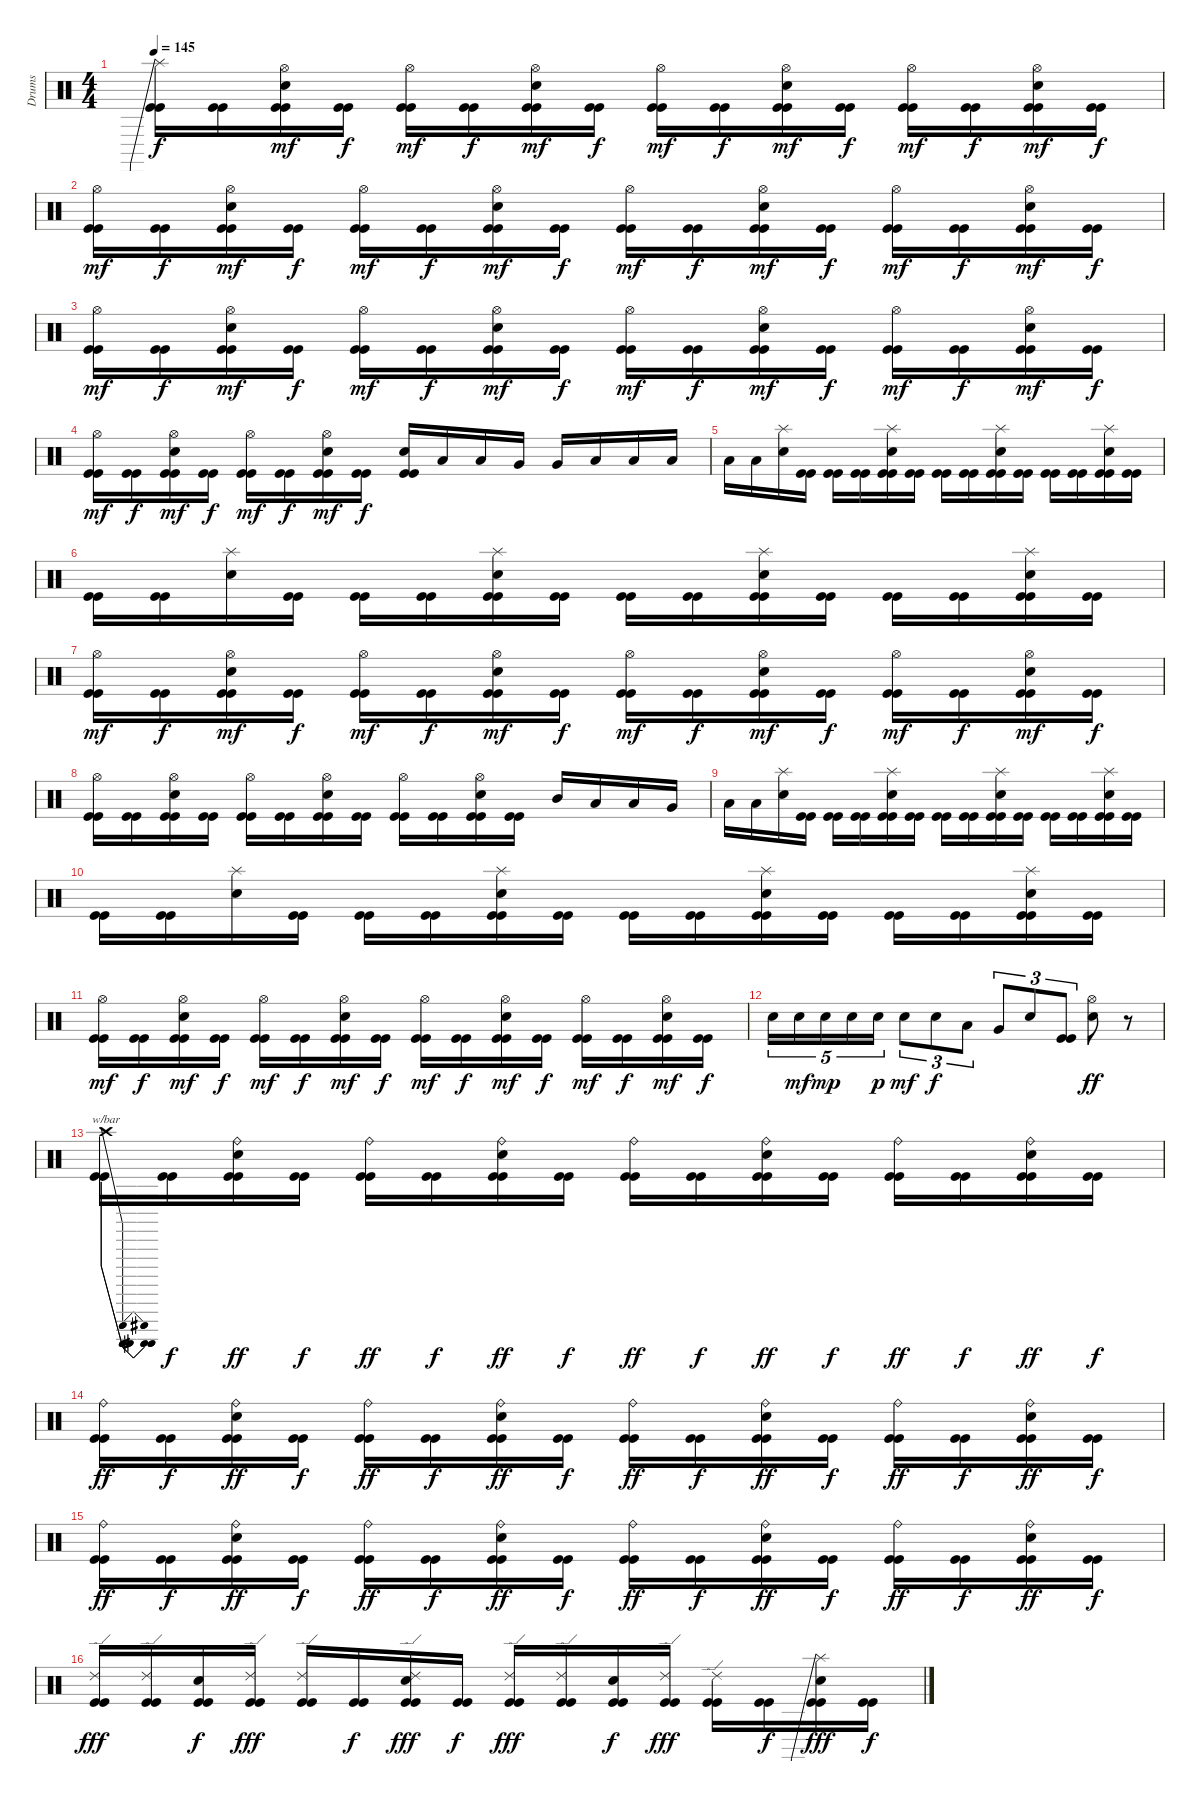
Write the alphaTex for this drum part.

\track ("Drums" "Drums") {instrument percussion}
\staff {score}
\articulation defaults
\ts (4 4)
\tempo 145
\clef neutral
\ks c
("Splash (hit)"{be (prebend 0 4 60 4)} "Kick (hit)" "Kick (hit)").16{dy f} ("Kick (hit)" "Kick (hit)").16 ("Hi-Hat (open)" "Electric Snare (hit)" "Kick (hit)" "Kick (hit)").16{dy mf} ("Kick (hit)" "Kick (hit)").16{dy f} ("Hi-Hat (open)" "Kick (hit)" "Kick (hit)").16{dy mf} ("Kick (hit)" "Kick (hit)").16{dy f} ("Hi-Hat (open)" "Electric Snare (hit)" "Kick (hit)" "Kick (hit)").16{dy mf} ("Kick (hit)" "Kick (hit)").16{dy f} ("Hi-Hat (open)" "Kick (hit)" "Kick (hit)").16{dy mf} ("Kick (hit)" "Kick (hit)").16{dy f} ("Hi-Hat (open)" "Electric Snare (hit)" "Kick (hit)" "Kick (hit)").16{dy mf} ("Kick (hit)" "Kick (hit)").16{dy f} ("Hi-Hat (open)" "Kick (hit)" "Kick (hit)").16{dy mf} ("Kick (hit)" "Kick (hit)").16{dy f} ("Hi-Hat (open)" "Electric Snare (hit)" "Kick (hit)" "Kick (hit)").16{dy mf} ("Kick (hit)" "Kick (hit)").16{dy f} |
("Hi-Hat (open)" "Kick (hit)" "Kick (hit)").16{dy mf} ("Kick (hit)" "Kick (hit)").16{dy f} ("Hi-Hat (open)" "Electric Snare (hit)" "Kick (hit)" "Kick (hit)").16{dy mf} ("Kick (hit)" "Kick (hit)").16{dy f} ("Hi-Hat (open)" "Kick (hit)" "Kick (hit)").16{dy mf} ("Kick (hit)" "Kick (hit)").16{dy f} ("Hi-Hat (open)" "Electric Snare (hit)" "Kick (hit)" "Kick (hit)").16{dy mf} ("Kick (hit)" "Kick (hit)").16{dy f} ("Hi-Hat (open)" "Kick (hit)" "Kick (hit)").16{dy mf} ("Kick (hit)" "Kick (hit)").16{dy f} ("Hi-Hat (open)" "Electric Snare (hit)" "Kick (hit)" "Kick (hit)").16{dy mf} ("Kick (hit)" "Kick (hit)").16{dy f} ("Hi-Hat (open)" "Kick (hit)" "Kick (hit)").16{dy mf} ("Kick (hit)" "Kick (hit)").16{dy f} ("Hi-Hat (open)" "Electric Snare (hit)" "Kick (hit)" "Kick (hit)").16{dy mf} ("Kick (hit)" "Kick (hit)").16{dy f} |
("Hi-Hat (open)" "Kick (hit)" "Kick (hit)").16{dy mf} ("Kick (hit)" "Kick (hit)").16{dy f} ("Hi-Hat (open)" "Electric Snare (hit)" "Kick (hit)" "Kick (hit)").16{dy mf} ("Kick (hit)" "Kick (hit)").16{dy f} ("Hi-Hat (open)" "Kick (hit)" "Kick (hit)").16{dy mf} ("Kick (hit)" "Kick (hit)").16{dy f} ("Hi-Hat (open)" "Electric Snare (hit)" "Kick (hit)" "Kick (hit)").16{dy mf} ("Kick (hit)" "Kick (hit)").16{dy f} ("Hi-Hat (open)" "Kick (hit)" "Kick (hit)").16{dy mf} ("Kick (hit)" "Kick (hit)").16{dy f} ("Hi-Hat (open)" "Electric Snare (hit)" "Kick (hit)" "Kick (hit)").16{dy mf} ("Kick (hit)" "Kick (hit)").16{dy f} ("Hi-Hat (open)" "Kick (hit)" "Kick (hit)").16{dy mf} ("Kick (hit)" "Kick (hit)").16{dy f} ("Hi-Hat (open)" "Electric Snare (hit)" "Kick (hit)" "Kick (hit)").16{dy mf} ("Kick (hit)" "Kick (hit)").16{dy f} |
("Hi-Hat (open)" "Kick (hit)" "Kick (hit)").16{dy mf} ("Kick (hit)" "Kick (hit)").16{dy f} ("Hi-Hat (open)" "Electric Snare (hit)" "Kick (hit)" "Kick (hit)").16{dy mf} ("Kick (hit)" "Kick (hit)").16{dy f} ("Hi-Hat (open)" "Kick (hit)" "Kick (hit)").16{dy mf} ("Kick (hit)" "Kick (hit)").16{dy f} ("Hi-Hat (open)" "Electric Snare (hit)" "Kick (hit)" "Kick (hit)").16{dy mf} ("Kick (hit)" "Kick (hit)").16{dy f} ("Electric Snare (hit)" "Kick (hit)" "Kick (hit)").16 "Low Tom (hit)".16 "Low Tom (hit)".16 "Very Low Tom (hit)".16 "Very Low Tom (hit)".16 "Low Floor Tom (hit)".16 "Low Floor Tom (hit)".16 "Low Floor Tom (hit)".16 |
"Low Floor Tom (hit)".16 "Low Floor Tom (hit)".16 ("Splash (hit)" "Electric Snare (hit)").16 ("Kick (hit)" "Kick (hit)").16 ("Kick (hit)" "Kick (hit)").16 ("Kick (hit)" "Kick (hit)").16 ("Splash (hit)" "Electric Snare (hit)" "Kick (hit)" "Kick (hit)").16 ("Kick (hit)" "Kick (hit)").16 ("Kick (hit)" "Kick (hit)").16 ("Kick (hit)" "Kick (hit)").16 ("Splash (hit)" "Electric Snare (hit)" "Kick (hit)" "Kick (hit)").16 ("Kick (hit)" "Kick (hit)").16 ("Kick (hit)" "Kick (hit)").16 ("Kick (hit)" "Kick (hit)").16 ("Splash (hit)" "Electric Snare (hit)" "Kick (hit)" "Kick (hit)").16 ("Kick (hit)" "Kick (hit)").16 |
("Kick (hit)" "Kick (hit)").16 ("Kick (hit)" "Kick (hit)").16 ("Splash (hit)" "Electric Snare (hit)").16 ("Kick (hit)" "Kick (hit)").16 ("Kick (hit)" "Kick (hit)").16 ("Kick (hit)" "Kick (hit)").16 ("Splash (hit)" "Electric Snare (hit)" "Kick (hit)" "Kick (hit)").16 ("Kick (hit)" "Kick (hit)").16 ("Kick (hit)" "Kick (hit)").16 ("Kick (hit)" "Kick (hit)").16 ("Splash (hit)" "Electric Snare (hit)" "Kick (hit)" "Kick (hit)").16 ("Kick (hit)" "Kick (hit)").16 ("Kick (hit)" "Kick (hit)").16 ("Kick (hit)" "Kick (hit)").16 ("Splash (hit)" "Electric Snare (hit)" "Kick (hit)" "Kick (hit)").16 ("Kick (hit)" "Kick (hit)").16 |
("Hi-Hat (open)" "Kick (hit)" "Kick (hit)").16{dy mf} ("Kick (hit)" "Kick (hit)").16{dy f} ("Hi-Hat (open)" "Electric Snare (hit)" "Kick (hit)" "Kick (hit)").16{dy mf} ("Kick (hit)" "Kick (hit)").16{dy f} ("Hi-Hat (open)" "Kick (hit)" "Kick (hit)").16{dy mf} ("Kick (hit)" "Kick (hit)").16{dy f} ("Hi-Hat (open)" "Electric Snare (hit)" "Kick (hit)" "Kick (hit)").16{dy mf} ("Kick (hit)" "Kick (hit)").16{dy f} ("Hi-Hat (open)" "Kick (hit)" "Kick (hit)").16{dy mf} ("Kick (hit)" "Kick (hit)").16{dy f} ("Hi-Hat (open)" "Electric Snare (hit)" "Kick (hit)" "Kick (hit)").16{dy mf} ("Kick (hit)" "Kick (hit)").16{dy f} ("Hi-Hat (open)" "Kick (hit)" "Kick (hit)").16{dy mf} ("Kick (hit)" "Kick (hit)").16{dy f} ("Hi-Hat (open)" "Electric Snare (hit)" "Kick (hit)" "Kick (hit)").16{dy mf} ("Kick (hit)" "Kick (hit)").16{dy f} |
("Hi-Hat (open)" "Kick (hit)" "Kick (hit)").16 ("Kick (hit)" "Kick (hit)").16 ("Hi-Hat (open)" "Electric Snare (hit)" "Kick (hit)" "Kick (hit)").16 ("Kick (hit)" "Kick (hit)").16 ("Hi-Hat (open)" "Kick (hit)" "Kick (hit)").16 ("Kick (hit)" "Kick (hit)").16 ("Hi-Hat (open)" "Electric Snare (hit)" "Kick (hit)" "Kick (hit)").16 ("Kick (hit)" "Kick (hit)").16 ("Hi-Hat (open)" "Kick (hit)" "Kick (hit)").16 ("Kick (hit)" "Kick (hit)").16 ("Hi-Hat (open)" "Electric Snare (hit)" "Kick (hit)" "Kick (hit)").16 ("Kick (hit)" "Kick (hit)").16 "Mid Tom (hit)".16 "Low Tom (hit)".16 "Low Tom (hit)".16 "Very Low Tom (hit)".16 |
"Low Floor Tom (hit)".16 "Low Floor Tom (hit)".16 ("Splash (hit)" "Electric Snare (hit)").16 ("Kick (hit)" "Kick (hit)").16 ("Kick (hit)" "Kick (hit)").16 ("Kick (hit)" "Kick (hit)").16 ("Splash (hit)" "Electric Snare (hit)" "Kick (hit)" "Kick (hit)").16 ("Kick (hit)" "Kick (hit)").16 ("Kick (hit)" "Kick (hit)").16 ("Kick (hit)" "Kick (hit)").16 ("Splash (hit)" "Electric Snare (hit)" "Kick (hit)" "Kick (hit)").16 ("Kick (hit)" "Kick (hit)").16 ("Kick (hit)" "Kick (hit)").16 ("Kick (hit)" "Kick (hit)").16 ("Splash (hit)" "Electric Snare (hit)" "Kick (hit)" "Kick (hit)").16 ("Kick (hit)" "Kick (hit)").16 |
("Kick (hit)" "Kick (hit)").16 ("Kick (hit)" "Kick (hit)").16 ("Splash (hit)" "Electric Snare (hit)").16 ("Kick (hit)" "Kick (hit)").16 ("Kick (hit)" "Kick (hit)").16 ("Kick (hit)" "Kick (hit)").16 ("Splash (hit)" "Electric Snare (hit)" "Kick (hit)" "Kick (hit)").16 ("Kick (hit)" "Kick (hit)").16 ("Kick (hit)" "Kick (hit)").16 ("Kick (hit)" "Kick (hit)").16 ("Splash (hit)" "Electric Snare (hit)" "Kick (hit)" "Kick (hit)").16 ("Kick (hit)" "Kick (hit)").16 ("Kick (hit)" "Kick (hit)").16 ("Kick (hit)" "Kick (hit)").16 ("Splash (hit)" "Electric Snare (hit)" "Kick (hit)" "Kick (hit)").16 ("Kick (hit)" "Kick (hit)").16 |
("Hi-Hat (open)" "Kick (hit)" "Kick (hit)").16{dy mf} ("Kick (hit)" "Kick (hit)").16{dy f} ("Hi-Hat (open)" "Electric Snare (hit)" "Kick (hit)" "Kick (hit)").16{dy mf} ("Kick (hit)" "Kick (hit)").16{dy f} ("Hi-Hat (open)" "Kick (hit)" "Kick (hit)").16{dy mf} ("Kick (hit)" "Kick (hit)").16{dy f} ("Hi-Hat (open)" "Electric Snare (hit)" "Kick (hit)" "Kick (hit)").16{dy mf} ("Kick (hit)" "Kick (hit)").16{dy f} ("Hi-Hat (open)" "Kick (hit)" "Kick (hit)").16{dy mf} ("Kick (hit)" "Kick (hit)").16{dy f} ("Hi-Hat (open)" "Electric Snare (hit)" "Kick (hit)" "Kick (hit)").16{dy mf} ("Kick (hit)" "Kick (hit)").16{dy f} ("Hi-Hat (open)" "Kick (hit)" "Kick (hit)").16{dy mf} ("Kick (hit)" "Kick (hit)").16{dy f} ("Hi-Hat (open)" "Electric Snare (hit)" "Kick (hit)" "Kick (hit)").16{dy mf} ("Kick (hit)" "Kick (hit)").16{dy f} |
"Electric Snare (hit)".16{tu (5 4)} "Electric Snare (hit)".16{tu (5 4) dy mf} "Electric Snare (hit)".16{tu (5 4) dy mp} "Electric Snare (hit)".16{tu (5 4)} "Electric Snare (hit)".16{tu (5 4) dy p} "Electric Snare (hit)".8{tu (3 2) dy mf} "Electric Snare (hit)".8{tu (3 2) dy f} "Low Tom (hit)".8{tu (3 2)} "Very Low Tom (hit)".8{tu (3 2)} "Electric Snare (hit)".8{tu (3 2)} ("Kick (hit)" "Kick (hit)").8{tu (3 2)} ("Hi-Hat (open)" "Electric Snare (hit)").8{dy ff} r.8 |
("Crash high (hit)" "Kick (hit)" "Kick (hit)").16{tbe (dip default 0 0 30 -2 60 0)} ("Kick (hit)" "Kick (hit)").16{dy f} ("Ride (bell)" "Electric Snare (hit)" "Kick (hit)" "Kick (hit)").16{dy ff} ("Kick (hit)" "Kick (hit)").16{dy f} ("Ride (bell)" "Kick (hit)" "Kick (hit)").16{dy ff} ("Kick (hit)" "Kick (hit)").16{dy f} ("Ride (bell)" "Electric Snare (hit)" "Kick (hit)" "Kick (hit)").16{dy ff} ("Kick (hit)" "Kick (hit)").16{dy f} ("Ride (bell)" "Kick (hit)" "Kick (hit)").16{dy ff} ("Kick (hit)" "Kick (hit)").16{dy f} ("Ride (bell)" "Electric Snare (hit)" "Kick (hit)" "Kick (hit)").16{dy ff} ("Kick (hit)" "Kick (hit)").16{dy f} ("Ride (bell)" "Kick (hit)" "Kick (hit)").16{dy ff} ("Kick (hit)" "Kick (hit)").16{dy f} ("Ride (bell)" "Electric Snare (hit)" "Kick (hit)" "Kick (hit)").16{dy ff} ("Kick (hit)" "Kick (hit)").16{dy f} |
("Ride (bell)" "Kick (hit)" "Kick (hit)").16{dy ff} ("Kick (hit)" "Kick (hit)").16{dy f} ("Ride (bell)" "Electric Snare (hit)" "Kick (hit)" "Kick (hit)").16{dy ff} ("Kick (hit)" "Kick (hit)").16{dy f} ("Ride (bell)" "Kick (hit)" "Kick (hit)").16{dy ff} ("Kick (hit)" "Kick (hit)").16{dy f} ("Ride (bell)" "Electric Snare (hit)" "Kick (hit)" "Kick (hit)").16{dy ff} ("Kick (hit)" "Kick (hit)").16{dy f} ("Ride (bell)" "Kick (hit)" "Kick (hit)").16{dy ff} ("Kick (hit)" "Kick (hit)").16{dy f} ("Ride (bell)" "Electric Snare (hit)" "Kick (hit)" "Kick (hit)").16{dy ff} ("Kick (hit)" "Kick (hit)").16{dy f} ("Ride (bell)" "Kick (hit)" "Kick (hit)").16{dy ff} ("Kick (hit)" "Kick (hit)").16{dy f} ("Ride (bell)" "Electric Snare (hit)" "Kick (hit)" "Kick (hit)").16{dy ff} ("Kick (hit)" "Kick (hit)").16{dy f} |
("Ride (bell)" "Kick (hit)" "Kick (hit)").16{dy ff} ("Kick (hit)" "Kick (hit)").16{dy f} ("Ride (bell)" "Electric Snare (hit)" "Kick (hit)" "Kick (hit)").16{dy ff} ("Kick (hit)" "Kick (hit)").16{dy f} ("Ride (bell)" "Kick (hit)" "Kick (hit)").16{dy ff} ("Kick (hit)" "Kick (hit)").16{dy f} ("Ride (bell)" "Electric Snare (hit)" "Kick (hit)" "Kick (hit)").16{dy ff} ("Kick (hit)" "Kick (hit)").16{dy f} ("Ride (bell)" "Kick (hit)" "Kick (hit)").16{dy ff} ("Kick (hit)" "Kick (hit)").16{dy f} ("Ride (bell)" "Electric Snare (hit)" "Kick (hit)" "Kick (hit)").16{dy ff} ("Kick (hit)" "Kick (hit)").16{dy f} ("Ride (bell)" "Kick (hit)" "Kick (hit)").16{dy ff} ("Kick (hit)" "Kick (hit)").16{dy f} ("Ride (bell)" "Electric Snare (hit)" "Kick (hit)" "Kick (hit)").16{dy ff} ("Kick (hit)" "Kick (hit)").16{dy f} |
("Ride (edge) 2" "Kick (hit)" "Kick (hit)").16{dy fff} ("Ride (edge) 2" "Kick (hit)" "Kick (hit)").16 ("Electric Snare (hit)" "Kick (hit)" "Kick (hit)").16{dy f} ("Ride (edge) 2" "Kick (hit)" "Kick (hit)").16{dy fff} ("Ride (edge) 2" "Kick (hit)" "Kick (hit)").16 ("Kick (hit)" "Kick (hit)").16{dy f} ("Ride (edge) 2" "Electric Snare (hit)" "Kick (hit)" "Kick (hit)").16{dy fff} ("Kick (hit)" "Kick (hit)").16{dy f} ("Ride (edge) 2" "Kick (hit)" "Kick (hit)").16{dy fff} ("Ride (edge) 2" "Kick (hit)" "Kick (hit)").16 ("Electric Snare (hit)" "Kick (hit)" "Kick (hit)").16{dy f} ("Ride (edge) 2" "Kick (hit)" "Kick (hit)").16{dy fff} ("Ride (edge) 2" "Kick (hit)" "Kick (hit)").16 ("Kick (hit)" "Kick (hit)").16{dy f} ("Splash (hit)"{be (prebend 0 3 60 3)} "Electric Snare (hit)" "Kick (hit)" "Kick (hit)").16{dy fff} ("Kick (hit)" "Kick (hit)").16{dy f}
